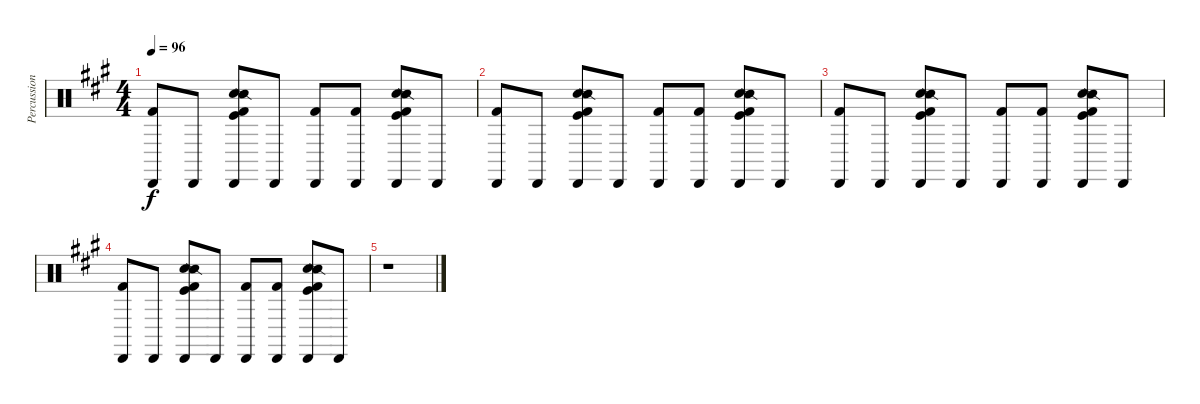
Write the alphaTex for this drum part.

\track ("Percussion" "Percussion") {instrument percussion}
\staff {score}
\articulation defaults
\ts (4 4)
\tempo 96
\clef neutral
\ks a
("Kick (hit) 2" "Cabasa (hit)").8{dy f} "Cabasa (hit)".8 ("Hand Clap (hit)" "Snare (side stick) 2" "Kick (hit) 2" "Kick (hit)" "Cabasa (hit)").8 "Cabasa (hit)".8 ("Kick (hit) 2" "Cabasa (hit)").8 ("Kick (hit) 2" "Cabasa (hit)").8 ("Hand Clap (hit)" "Snare (side stick) 2" "Kick (hit) 2" "Kick (hit)" "Cabasa (hit)").8 "Cabasa (hit)".8 |
("Kick (hit) 2" "Cabasa (hit)").8 "Cabasa (hit)".8 ("Hand Clap (hit)" "Snare (side stick) 2" "Kick (hit) 2" "Kick (hit)" "Cabasa (hit)").8 "Cabasa (hit)".8 ("Kick (hit) 2" "Cabasa (hit)").8 ("Kick (hit) 2" "Cabasa (hit)").8 ("Hand Clap (hit)" "Snare (side stick) 2" "Kick (hit) 2" "Kick (hit)" "Cabasa (hit)").8 "Cabasa (hit)".8 |
("Kick (hit) 2" "Cabasa (hit)").8 "Cabasa (hit)".8 ("Hand Clap (hit)" "Snare (side stick) 2" "Kick (hit) 2" "Kick (hit)" "Cabasa (hit)").8 "Cabasa (hit)".8 ("Kick (hit) 2" "Cabasa (hit)").8 ("Kick (hit) 2" "Cabasa (hit)").8 ("Hand Clap (hit)" "Snare (side stick) 2" "Kick (hit) 2" "Kick (hit)" "Cabasa (hit)").8 "Cabasa (hit)".8 |
("Kick (hit) 2" "Cabasa (hit)").8 "Cabasa (hit)".8 ("Hand Clap (hit)" "Snare (side stick) 2" "Kick (hit) 2" "Kick (hit)" "Cabasa (hit)").8 "Cabasa (hit)".8 ("Kick (hit) 2" "Cabasa (hit)").8 ("Kick (hit) 2" "Cabasa (hit)").8 ("Hand Clap (hit)" "Snare (side stick) 2" "Kick (hit) 2" "Kick (hit)" "Cabasa (hit)").8 "Cabasa (hit)".8 |
r.1
